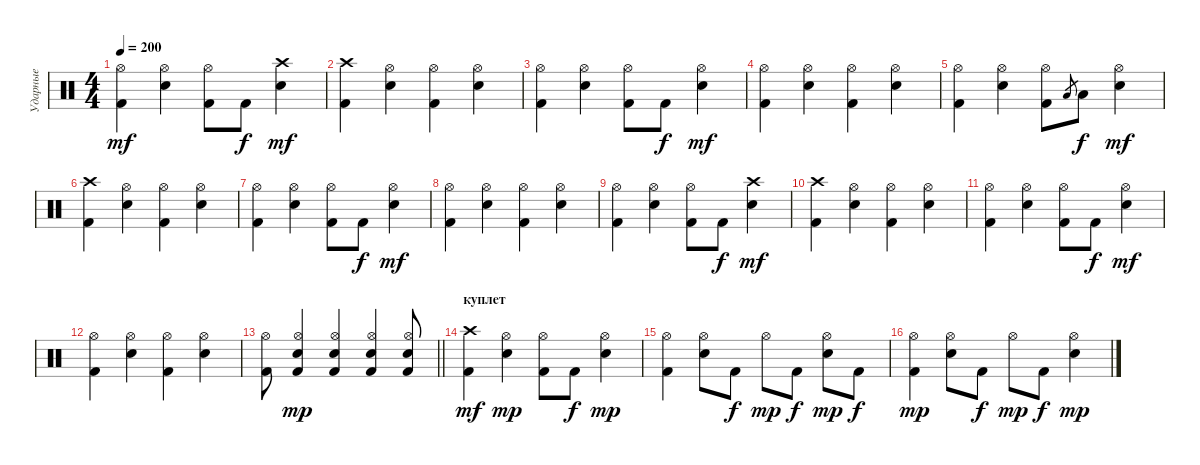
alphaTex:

\track ("Ударные" "Ударные") {instrument percussion}
\staff {score}
\articulation defaults
\ts (4 4)
\tempo 200
\clef neutral
\ks c
("Kick (hit) 2" "Hi-Hat (open)").4{dy mf} ("Electric Snare (hit)" "Hi-Hat (open)").4 ("Kick (hit) 2" "Hi-Hat (open)").8 "Kick (hit) 2".8{dy f} ("Electric Snare (hit)" "Crash high (hit)").4{dy mf} |
("Kick (hit) 2" "Crash high (hit)").4 ("Electric Snare (hit)" "Hi-Hat (open)").4 ("Kick (hit) 2" "Hi-Hat (open)").4 ("Electric Snare (hit)" "Hi-Hat (open)").4 |
("Kick (hit) 2" "Hi-Hat (open)").4 ("Electric Snare (hit)" "Hi-Hat (open)").4 ("Kick (hit) 2" "Hi-Hat (open)").8 "Kick (hit) 2".8{dy f} ("Electric Snare (hit)" "Hi-Hat (open)").4{dy mf} |
("Kick (hit) 2" "Hi-Hat (open)").4 ("Electric Snare (hit)" "Hi-Hat (open)").4 ("Kick (hit) 2" "Hi-Hat (open)").4 ("Electric Snare (hit)" "Hi-Hat (open)").4 |
("Kick (hit) 2" "Hi-Hat (open)").4 ("Electric Snare (hit)" "Hi-Hat (open)").4 ("Kick (hit) 2" "Hi-Hat (open)").8 "Low Floor Tom (hit)".8{gr} "Low Floor Tom (hit)".8{dy f} ("Electric Snare (hit)" "Hi-Hat (open)").4{dy mf} |
("Kick (hit) 2" "Crash high (hit)").4 ("Electric Snare (hit)" "Hi-Hat (open)").4 ("Kick (hit) 2" "Hi-Hat (open)").4 ("Electric Snare (hit)" "Hi-Hat (open)").4 |
("Kick (hit) 2" "Hi-Hat (open)").4 ("Electric Snare (hit)" "Hi-Hat (open)").4 ("Kick (hit) 2" "Hi-Hat (open)").8 "Kick (hit) 2".8{dy f} ("Electric Snare (hit)" "Hi-Hat (open)").4{dy mf} |
("Kick (hit) 2" "Hi-Hat (open)").4 ("Electric Snare (hit)" "Hi-Hat (open)").4 ("Kick (hit) 2" "Hi-Hat (open)").4 ("Electric Snare (hit)" "Hi-Hat (open)").4 |
("Kick (hit) 2" "Hi-Hat (open)").4 ("Electric Snare (hit)" "Hi-Hat (open)").4 ("Kick (hit) 2" "Hi-Hat (open)").8 "Kick (hit) 2".8{dy f} ("Electric Snare (hit)" "Crash high (hit)").4{dy mf} |
("Kick (hit) 2" "Crash high (hit)").4 ("Electric Snare (hit)" "Hi-Hat (open)").4 ("Kick (hit) 2" "Hi-Hat (open)").4 ("Electric Snare (hit)" "Hi-Hat (open)").4 |
("Kick (hit) 2" "Hi-Hat (open)").4 ("Electric Snare (hit)" "Hi-Hat (open)").4 ("Kick (hit) 2" "Hi-Hat (open)").8 "Kick (hit) 2".8{dy f} ("Electric Snare (hit)" "Hi-Hat (open)").4{dy mf} |
("Kick (hit) 2" "Hi-Hat (open)").4 ("Electric Snare (hit)" "Hi-Hat (open)").4 ("Kick (hit) 2" "Hi-Hat (open)").4 ("Electric Snare (hit)" "Hi-Hat (open)").4 |
\barLineRight lightlight
("Kick (hit) 2" "Hi-Hat (open)").8 ("Kick (hit) 2" "Electric Snare (hit)" "Hi-Hat (open)").4{dy mp} ("Kick (hit) 2" "Electric Snare (hit)" "Hi-Hat (open)").4 ("Kick (hit) 2" "Electric Snare (hit)" "Hi-Hat (open)").4 ("Kick (hit) 2" "Electric Snare (hit)" "Hi-Hat (open)").8 |
\section ("" "куплет")
("Kick (hit) 2" "Crash high (hit)").4{dy mf} ("Electric Snare (hit)" "Hi-Hat (open)").4{dy mp} ("Kick (hit) 2" "Hi-Hat (open)").8 "Kick (hit) 2".8{dy f} ("Electric Snare (hit)" "Hi-Hat (open)").4{dy mp} |
("Kick (hit) 2" "Hi-Hat (open)").4 ("Electric Snare (hit)" "Hi-Hat (open)").8 "Kick (hit) 2".8{dy f} "Hi-Hat (open)".8{dy mp} "Kick (hit) 2".8{dy f} ("Electric Snare (hit)" "Hi-Hat (open)").8{dy mp} "Kick (hit) 2".8{dy f} |
("Kick (hit) 2" "Hi-Hat (open)").4{dy mp} ("Electric Snare (hit)" "Hi-Hat (open)").8 "Kick (hit) 2".8{dy f} "Hi-Hat (open)".8{dy mp} "Kick (hit) 2".8{dy f} ("Electric Snare (hit)" "Hi-Hat (open)").4{dy mp}
